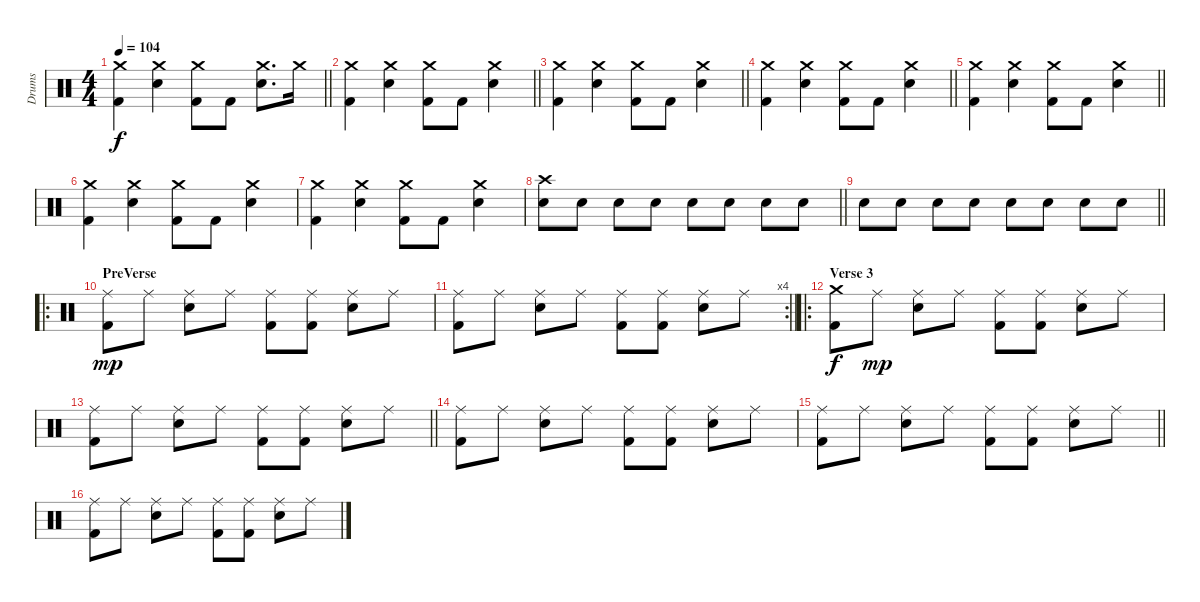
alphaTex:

\track ("Drums" "Drums") {instrument percussion}
\staff {score}
\articulation defaults
\ts (4 4)
\tempo 104
\clef neutral
\barLineRight lightlight
\ks c
("Kick (hit) 2" "Crash medium (hit)").4{dy f} ("Electric Snare (hit)" "Crash medium (hit)").4 ("Kick (hit) 2" "Crash medium (hit)").8 "Kick (hit) 2".8 ("Electric Snare (hit)" "Crash medium (hit)").8{d} "Crash medium (hit)".16 |
\barLineRight lightlight
("Kick (hit) 2" "Crash medium (hit)").4 ("Electric Snare (hit)" "Crash medium (hit)").4 ("Kick (hit) 2" "Crash medium (hit)").8 "Kick (hit) 2".8 ("Electric Snare (hit)" "Crash medium (hit)").4 |
\barLineRight lightlight
("Kick (hit) 2" "Crash medium (hit)").4 ("Electric Snare (hit)" "Crash medium (hit)").4 ("Kick (hit) 2" "Crash medium (hit)").8 "Kick (hit) 2".8 ("Electric Snare (hit)" "Crash medium (hit)").4 |
\barLineRight lightlight
("Kick (hit) 2" "Crash medium (hit)").4 ("Electric Snare (hit)" "Crash medium (hit)").4 ("Kick (hit) 2" "Crash medium (hit)").8 "Kick (hit) 2".8 ("Electric Snare (hit)" "Crash medium (hit)").4 |
\barLineRight lightlight
("Kick (hit) 2" "Crash medium (hit)").4 ("Electric Snare (hit)" "Crash medium (hit)").4 ("Kick (hit) 2" "Crash medium (hit)").8 "Kick (hit) 2".8 ("Electric Snare (hit)" "Crash medium (hit)").4 |
("Kick (hit) 2" "Crash medium (hit)").4 ("Electric Snare (hit)" "Crash medium (hit)").4 ("Kick (hit) 2" "Crash medium (hit)").8 "Kick (hit) 2".8 ("Electric Snare (hit)" "Crash medium (hit)").4 |
("Kick (hit) 2" "Crash medium (hit)").4 ("Electric Snare (hit)" "Crash medium (hit)").4 ("Kick (hit) 2" "Crash medium (hit)").8 "Kick (hit) 2".8 ("Electric Snare (hit)" "Crash medium (hit)").4 |
\barLineRight lightlight
("Electric Snare (hit)" "Crash high (hit)").8 "Electric Snare (hit)".8 "Electric Snare (hit)".8 "Electric Snare (hit)".8 "Electric Snare (hit)".8 "Electric Snare (hit)".8 "Electric Snare (hit)".8 "Electric Snare (hit)".8 |
\barLineRight lightlight "Electric Snare (hit)".8 "Electric Snare (hit)".8 "Electric Snare (hit)".8 "Electric Snare (hit)".8 "Electric Snare (hit)".8 "Electric Snare (hit)".8 "Electric Snare (hit)".8 "Electric Snare (hit)".8
|
\ro
\section ("" "PreVerse")
("Kick (hit) 2" "Ride (middle)").8{dy mp} "Ride (middle)".8 ("Electric Snare (hit)" "Ride (middle)").8 "Ride (middle)".8 ("Kick (hit) 2" "Ride (middle)").8 ("Kick (hit) 2" "Ride (middle)").8 ("Electric Snare (hit)" "Ride (middle)").8 "Ride (middle)".8 |
\rc 4
\barLineRight lightlight
("Kick (hit) 2" "Ride (middle)").8 "Ride (middle)".8 ("Electric Snare (hit)" "Ride (middle)").8 "Ride (middle)".8 ("Kick (hit) 2" "Ride (middle)").8 ("Kick (hit) 2" "Ride (middle)").8 ("Electric Snare (hit)" "Ride (middle)").8 "Ride (middle)".8 |
\ro
\section ("" "Verse 3")
("Kick (hit) 2" "Crash medium (hit)").8{dy f} "Ride (middle)".8{dy mp} ("Electric Snare (hit)" "Ride (middle)").8 "Ride (middle)".8 ("Kick (hit) 2" "Ride (middle)").8 ("Kick (hit) 2" "Ride (middle)").8 ("Electric Snare (hit)" "Ride (middle)").8 "Ride (middle)".8 |
\barLineRight lightlight
("Kick (hit) 2" "Ride (middle)").8 "Ride (middle)".8 ("Electric Snare (hit)" "Ride (middle)").8 "Ride (middle)".8 ("Kick (hit) 2" "Ride (middle)").8 ("Kick (hit) 2" "Ride (middle)").8 ("Electric Snare (hit)" "Ride (middle)").8 "Ride (middle)".8 |
("Kick (hit) 2" "Ride (middle)").8 "Ride (middle)".8 ("Electric Snare (hit)" "Ride (middle)").8 "Ride (middle)".8 ("Kick (hit) 2" "Ride (middle)").8 ("Kick (hit) 2" "Ride (middle)").8 ("Electric Snare (hit)" "Ride (middle)").8 "Ride (middle)".8 |
\barLineRight lightlight
("Kick (hit) 2" "Ride (middle)").8 "Ride (middle)".8 ("Electric Snare (hit)" "Ride (middle)").8 "Ride (middle)".8 ("Kick (hit) 2" "Ride (middle)").8 ("Kick (hit) 2" "Ride (middle)").8 ("Electric Snare (hit)" "Ride (middle)").8 "Ride (middle)".8 |
("Kick (hit) 2" "Ride (middle)").8 "Ride (middle)".8 ("Electric Snare (hit)" "Ride (middle)").8 "Ride (middle)".8 ("Kick (hit) 2" "Ride (middle)").8 ("Kick (hit) 2" "Ride (middle)").8 ("Electric Snare (hit)" "Ride (middle)").8 "Ride (middle)".8
